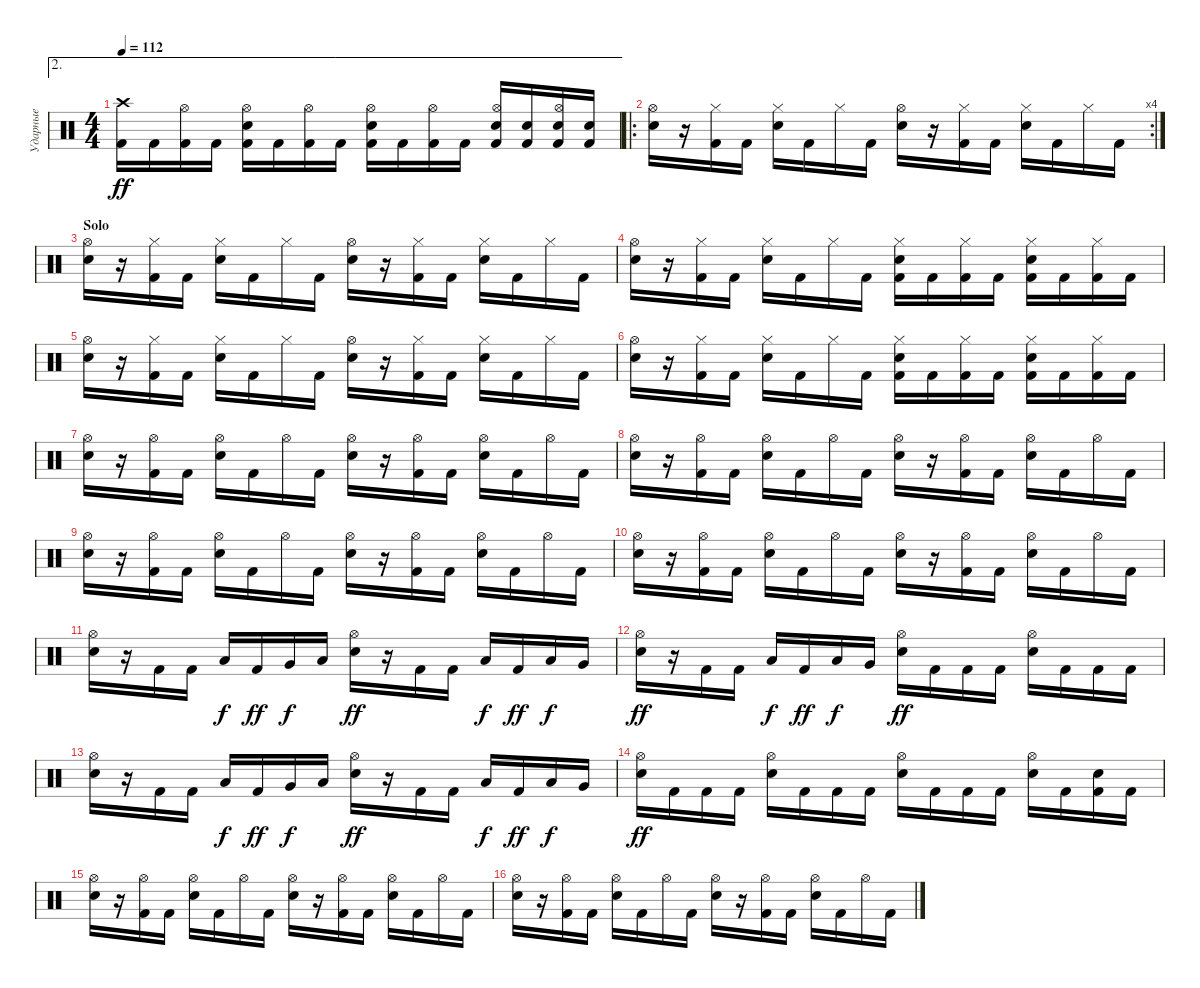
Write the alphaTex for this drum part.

\track ("Ударные" "Ударные") {instrument percussion}
\staff {score}
\articulation defaults
\ae 2
\ts (4 4)
\tempo 112
\clef neutral
\ks c
("Crash high (hit)" "Kick (hit) 2").16{dy ff} "Kick (hit) 2".16 ("Hi-Hat (open)" "Kick (hit) 2").16 "Kick (hit) 2".16 ("Hi-Hat (open)" "Snare (hit) 2" "Kick (hit) 2").16 "Kick (hit) 2".16 ("Hi-Hat (open)" "Kick (hit) 2").16 "Kick (hit) 2".16 ("Hi-Hat (open)" "Snare (hit) 2" "Kick (hit) 2").16 "Kick (hit) 2".16 ("Hi-Hat (open)" "Kick (hit) 2").16 "Kick (hit) 2".16 ("Hi-Hat (open)" "Snare (hit) 2" "Kick (hit) 2").16 ("Snare (hit) 2" "Kick (hit) 2").16 ("Hi-Hat (open)" "Snare (hit) 2" "Kick (hit) 2").16 ("Snare (hit) 2" "Kick (hit) 2").16 |
\ro
\rc 4
("Hi-Hat (open)" "Snare (hit) 2").16 r.16 ("Hi-Hat (closed)" "Kick (hit) 2").16 "Kick (hit) 2".16 ("Hi-Hat (closed)" "Snare (hit) 2").16 "Kick (hit) 2".16 "Hi-Hat (closed)".16 "Kick (hit) 2".16 ("Hi-Hat (open)" "Snare (hit) 2").16 r.16 ("Hi-Hat (closed)" "Kick (hit) 2").16 "Kick (hit) 2".16 ("Hi-Hat (closed)" "Snare (hit) 2").16 "Kick (hit) 2".16 "Hi-Hat (closed)".16 "Kick (hit) 2".16 |
\section ("" "Solo")
("Hi-Hat (open)" "Snare (hit) 2").16 r.16 ("Hi-Hat (closed)" "Kick (hit) 2").16 "Kick (hit) 2".16 ("Hi-Hat (closed)" "Snare (hit) 2").16 "Kick (hit) 2".16 "Hi-Hat (closed)".16 "Kick (hit) 2".16 ("Hi-Hat (open)" "Snare (hit) 2").16 r.16 ("Hi-Hat (closed)" "Kick (hit) 2").16 "Kick (hit) 2".16 ("Hi-Hat (closed)" "Snare (hit) 2").16 "Kick (hit) 2".16 "Hi-Hat (closed)".16 "Kick (hit) 2".16 |
("Hi-Hat (open)" "Snare (hit) 2").16 r.16 ("Hi-Hat (closed)" "Kick (hit) 2").16 "Kick (hit) 2".16 ("Hi-Hat (closed)" "Snare (hit) 2").16 "Kick (hit) 2".16 "Hi-Hat (closed)".16 "Kick (hit) 2".16 ("Hi-Hat (closed)" "Snare (hit) 2" "Kick (hit) 2").16 "Kick (hit) 2".16 ("Hi-Hat (closed)" "Kick (hit) 2").16 "Kick (hit) 2".16 ("Hi-Hat (closed)" "Snare (hit) 2" "Kick (hit) 2").16 "Kick (hit) 2".16 ("Hi-Hat (closed)" "Kick (hit) 2").16 "Kick (hit) 2".16 |
("Hi-Hat (open)" "Snare (hit) 2").16 r.16 ("Hi-Hat (closed)" "Kick (hit) 2").16 "Kick (hit) 2".16 ("Hi-Hat (closed)" "Snare (hit) 2").16 "Kick (hit) 2".16 "Hi-Hat (closed)".16 "Kick (hit) 2".16 ("Hi-Hat (open)" "Snare (hit) 2").16 r.16 ("Hi-Hat (closed)" "Kick (hit) 2").16 "Kick (hit) 2".16 ("Hi-Hat (closed)" "Snare (hit) 2").16 "Kick (hit) 2".16 "Hi-Hat (closed)".16 "Kick (hit) 2".16 |
("Hi-Hat (open)" "Snare (hit) 2").16 r.16 ("Hi-Hat (closed)" "Kick (hit) 2").16 "Kick (hit) 2".16 ("Hi-Hat (closed)" "Snare (hit) 2").16 "Kick (hit) 2".16 "Hi-Hat (closed)".16 "Kick (hit) 2".16 ("Hi-Hat (closed)" "Snare (hit) 2" "Kick (hit) 2").16 "Kick (hit) 2".16 ("Hi-Hat (closed)" "Kick (hit) 2").16 "Kick (hit) 2".16 ("Hi-Hat (closed)" "Snare (hit) 2" "Kick (hit) 2").16 "Kick (hit) 2".16 ("Hi-Hat (closed)" "Kick (hit) 2").16 "Kick (hit) 2".16 |
("Hi-Hat (open)" "Snare (hit) 2").16 r.16 ("Hi-Hat (open)" "Kick (hit) 2").16 "Kick (hit) 2".16 ("Hi-Hat (open)" "Snare (hit) 2").16 "Kick (hit) 2".16 "Hi-Hat (open)".16 "Kick (hit) 2".16 ("Hi-Hat (open)" "Snare (hit) 2").16 r.16 ("Hi-Hat (open)" "Kick (hit) 2").16 "Kick (hit) 2".16 ("Hi-Hat (open)" "Snare (hit) 2").16 "Kick (hit) 2".16 "Hi-Hat (open)".16 "Kick (hit) 2".16 |
("Hi-Hat (open)" "Snare (hit) 2").16 r.16 ("Hi-Hat (open)" "Kick (hit) 2").16 "Kick (hit) 2".16 ("Hi-Hat (open)" "Snare (hit) 2").16 "Kick (hit) 2".16 "Hi-Hat (open)".16 "Kick (hit) 2".16 ("Hi-Hat (open)" "Snare (hit) 2").16 r.16 ("Hi-Hat (open)" "Kick (hit) 2").16 "Kick (hit) 2".16 ("Hi-Hat (open)" "Snare (hit) 2").16 "Kick (hit) 2".16 "Hi-Hat (open)".16 "Kick (hit) 2".16 |
("Hi-Hat (open)" "Snare (hit) 2").16 r.16 ("Hi-Hat (open)" "Kick (hit) 2").16 "Kick (hit) 2".16 ("Hi-Hat (open)" "Snare (hit) 2").16 "Kick (hit) 2".16 "Hi-Hat (open)".16 "Kick (hit) 2".16 ("Hi-Hat (open)" "Snare (hit) 2").16 r.16 ("Hi-Hat (open)" "Kick (hit) 2").16 "Kick (hit) 2".16 ("Hi-Hat (open)" "Snare (hit) 2").16 "Kick (hit) 2".16 "Hi-Hat (open)".16 "Kick (hit) 2".16 |
("Hi-Hat (open)" "Snare (hit) 2").16 r.16 ("Hi-Hat (open)" "Kick (hit) 2").16 "Kick (hit) 2".16 ("Hi-Hat (open)" "Snare (hit) 2").16 "Kick (hit) 2".16 "Hi-Hat (open)".16 "Kick (hit) 2".16 ("Hi-Hat (open)" "Snare (hit) 2").16 r.16 ("Hi-Hat (open)" "Kick (hit) 2").16 "Kick (hit) 2".16 ("Hi-Hat (open)" "Snare (hit) 2").16 "Kick (hit) 2".16 "Hi-Hat (open)".16 "Kick (hit) 2".16 |
("Hi-Hat (open)" "Snare (hit) 2").16 r.16 "Kick (hit) 2".16 "Kick (hit) 2".16 "Low Floor Tom (hit)".16{dy f} "Kick (hit) 2".16{dy ff} "Very Low Tom (hit)".16{dy f} "Low Floor Tom (hit)".16 ("Hi-Hat (open)" "Snare (hit) 2").16{dy ff} r.16 "Kick (hit) 2".16 "Kick (hit) 2".16 "Low Floor Tom (hit)".16{dy f} "Kick (hit) 2".16{dy ff} "Low Floor Tom (hit)".16{dy f} "Very Low Tom (hit)".16 |
("Hi-Hat (open)" "Snare (hit) 2").16{dy ff} r.16 "Kick (hit) 2".16 "Kick (hit) 2".16 "Low Floor Tom (hit)".16{dy f} "Kick (hit) 2".16{dy ff} "Low Tom (hit)".16{dy f} "Very Low Tom (hit)".16 ("Hi-Hat (open)" "Snare (hit) 2").16{dy ff} "Kick (hit) 2".16 "Kick (hit) 2".16 "Kick (hit) 2".16 ("Hi-Hat (open)" "Snare (hit) 2").16 "Kick (hit) 2".16 "Kick (hit) 2".16 "Kick (hit) 2".16 |
("Hi-Hat (open)" "Snare (hit) 2").16 r.16 "Kick (hit) 2".16 "Kick (hit) 2".16 "Low Floor Tom (hit)".16{dy f} "Kick (hit) 2".16{dy ff} "Very Low Tom (hit)".16{dy f} "Low Floor Tom (hit)".16 ("Hi-Hat (open)" "Snare (hit) 2").16{dy ff} r.16 "Kick (hit) 2".16 "Kick (hit) 2".16 "Low Floor Tom (hit)".16{dy f} "Kick (hit) 2".16{dy ff} "Low Floor Tom (hit)".16{dy f} "Very Low Tom (hit)".16 |
("Hi-Hat (open)" "Snare (hit) 2").16{dy ff} "Kick (hit) 2".16 "Kick (hit) 2".16 "Kick (hit) 2".16 ("Hi-Hat (open)" "Snare (hit) 2").16 "Kick (hit) 2".16 "Kick (hit) 2".16 "Kick (hit) 2".16 ("Hi-Hat (open)" "Snare (hit) 2").16 "Kick (hit) 2".16 "Kick (hit) 2".16 "Kick (hit) 2".16 ("Hi-Hat (open)" "Snare (hit) 2").16 "Kick (hit) 2".16 ("Snare (hit) 2" "Kick (hit) 2").16 "Kick (hit) 2".16 |
("Hi-Hat (open)" "Snare (hit) 2").16 r.16 ("Hi-Hat (open)" "Kick (hit) 2").16 "Kick (hit) 2".16 ("Hi-Hat (open)" "Snare (hit) 2").16 "Kick (hit) 2".16 "Hi-Hat (open)".16 "Kick (hit) 2".16 ("Hi-Hat (open)" "Snare (hit) 2").16 r.16 ("Hi-Hat (open)" "Kick (hit) 2").16 "Kick (hit) 2".16 ("Hi-Hat (open)" "Snare (hit) 2").16 "Kick (hit) 2".16 "Hi-Hat (open)".16 "Kick (hit) 2".16 |
("Hi-Hat (open)" "Snare (hit) 2").16 r.16 ("Hi-Hat (open)" "Kick (hit) 2").16 "Kick (hit) 2".16 ("Hi-Hat (open)" "Snare (hit) 2").16 "Kick (hit) 2".16 "Hi-Hat (open)".16 "Kick (hit) 2".16 ("Hi-Hat (open)" "Snare (hit) 2").16 r.16 ("Hi-Hat (open)" "Kick (hit) 2").16 "Kick (hit) 2".16 ("Hi-Hat (open)" "Snare (hit) 2").16 "Kick (hit) 2".16 "Hi-Hat (open)".16 "Kick (hit) 2".16
